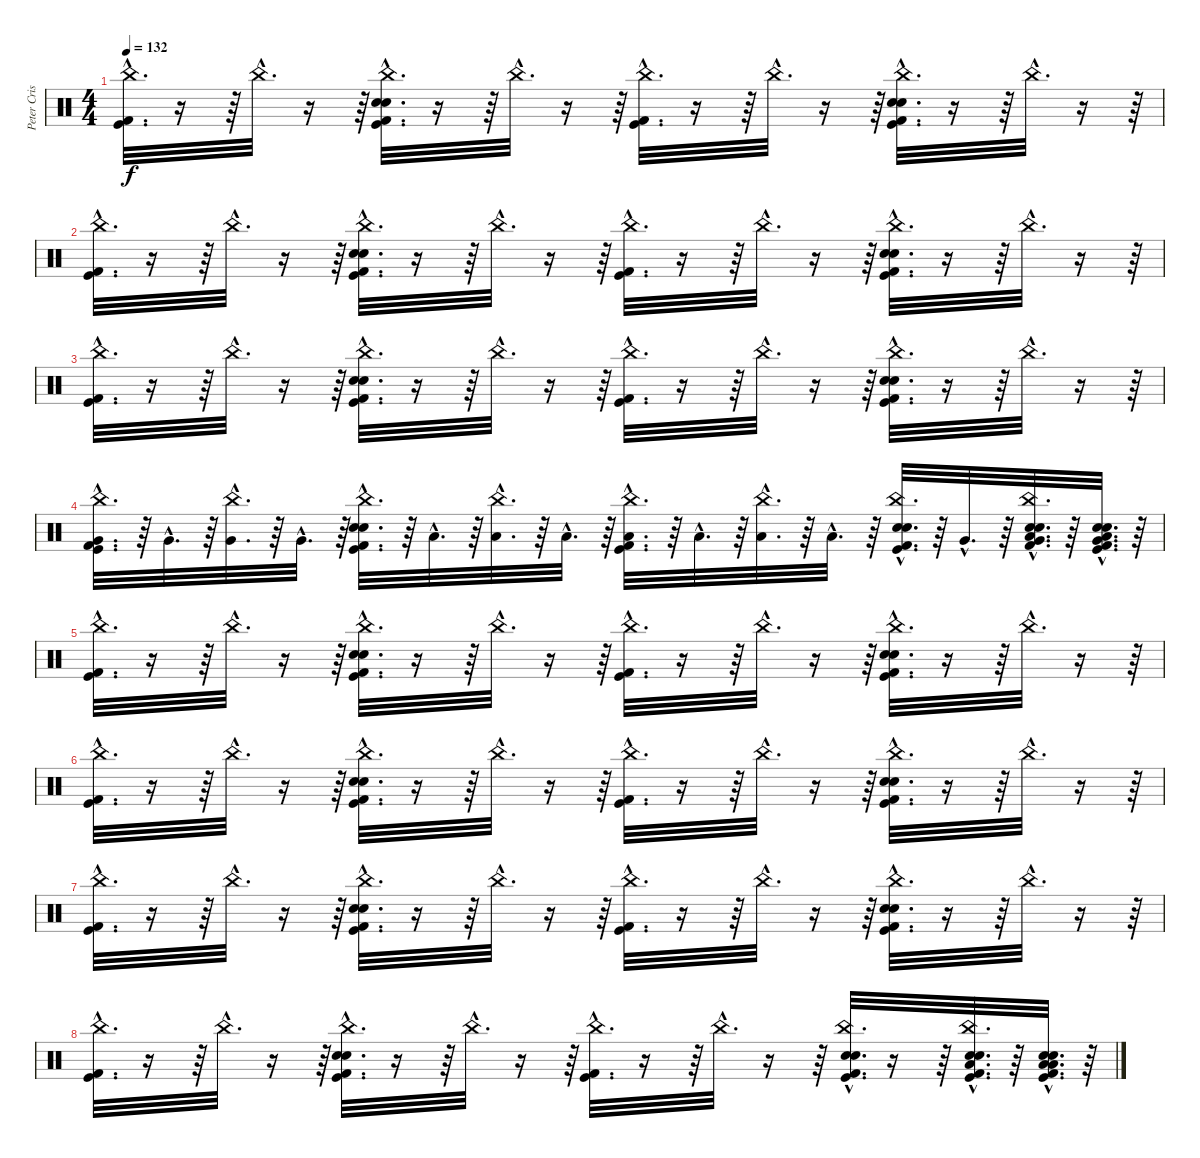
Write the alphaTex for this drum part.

\track ("Peter Criss" "Peter Cris") {instrument percussion}
\staff {score}
\articulation defaults
\ts (4 4)
\tempo 132
\clef neutral
\ks c
("Kick (hit) 2"{hac} "Kick (hit)"{hac} "China (hit)"{hac}).32{d dy f} r.16 r.64 "China (hit)"{hac}.32{d} r.16 r.64 ("Kick (hit) 2"{hac} "Kick (hit)"{hac} "China (hit)"{hac} "Electric Snare (hit)"{hac} "Snare (hit) 2"{hac}).32{d} r.16 r.64 "China (hit)"{hac}.32{d} r.16 r.64 ("Kick (hit) 2"{hac} "Kick (hit)"{hac} "China (hit)"{hac}).32{d} r.16 r.64 "China (hit)"{hac}.32{d} r.16 r.64 ("Kick (hit) 2"{hac} "Kick (hit)"{hac} "China (hit)"{hac} "Electric Snare (hit)"{hac} "Snare (hit) 2"{hac}).32{d} r.16 r.64 "China (hit)"{hac}.32{d} r.16 r.64 |
("Kick (hit) 2"{hac} "Kick (hit)"{hac} "China (hit)"{hac}).32{d} r.16 r.64 "China (hit)"{hac}.32{d} r.16 r.64 ("Kick (hit) 2"{hac} "Kick (hit)"{hac} "China (hit)"{hac} "Electric Snare (hit)"{hac} "Snare (hit) 2"{hac}).32{d} r.16 r.64 "China (hit)"{hac}.32{d} r.16 r.64 ("Kick (hit) 2"{hac} "Kick (hit)"{hac} "China (hit)"{hac}).32{d} r.16 r.64 "China (hit)"{hac}.32{d} r.16 r.64 ("Kick (hit) 2"{hac} "Kick (hit)"{hac} "China (hit)"{hac} "Electric Snare (hit)"{hac} "Snare (hit) 2"{hac}).32{d} r.16 r.64 "China (hit)"{hac}.32{d} r.16 r.64 |
("Kick (hit) 2"{hac} "Kick (hit)"{hac} "China (hit)"{hac}).32{d} r.16 r.64 "China (hit)"{hac}.32{d} r.16 r.64 ("Kick (hit) 2"{hac} "Kick (hit)"{hac} "China (hit)"{hac} "Electric Snare (hit)"{hac} "Snare (hit) 2"{hac}).32{d} r.16 r.64 "China (hit)"{hac}.32{d} r.16 r.64 ("Kick (hit) 2"{hac} "Kick (hit)"{hac} "China (hit)"{hac}).32{d} r.16 r.64 "China (hit)"{hac}.32{d} r.16 r.64 ("Kick (hit) 2"{hac} "Kick (hit)"{hac} "China (hit)"{hac} "Electric Snare (hit)"{hac} "Snare (hit) 2"{hac}).32{d} r.16 r.64 "China (hit)"{hac}.32{d} r.16 r.64 |
("Kick (hit) 2"{hac} "Kick (hit)"{hac} "China (hit)"{hac} "Very Low Tom (hit)"{hac}).32{d} r.64 "Very Low Tom (hit)"{hac}.32{d} r.64 ("China (hit)"{hac} "Very Low Tom (hit)"{hac}).32{d} r.64 "Very Low Tom (hit)"{hac}.32{d} r.64 ("Kick (hit) 2"{hac} "Kick (hit)"{hac} "China (hit)"{hac} "Electric Snare (hit)"{hac} "Snare (hit) 2"{hac}).32{d} r.64 "Low Tom (hit)"{hac}.32{d} r.64 ("China (hit)"{hac} "Low Tom (hit)"{hac}).32{d} r.64 "Low Tom (hit)"{hac}.32{d} r.64 ("Kick (hit) 2"{hac} "Kick (hit)"{hac} "China (hit)"{hac} "Low Floor Tom (hit)"{hac}).32{d} r.64 "Low Floor Tom (hit)"{hac}.32{d} r.64 ("China (hit)"{hac} "Low Floor Tom (hit)"{hac}).32{d} r.64 "Low Floor Tom (hit)"{hac}.32{d} r.64 ("Kick (hit) 2"{hac} "Kick (hit)"{hac} "China (hit)"{hac} "Electric Snare (hit)"{hac} "Snare (hit) 2"{hac}).32{d} r.64 "Very Low Tom (hit)"{hac}.32{d} r.64 ("China (hit)"{hac} "Very Low Tom (hit)"{hac} "Electric Snare (hit)"{hac} "Snare (hit) 2"{hac} "Kick (hit) 2"{hac} "Low Floor Tom (hit)"{hac}).32{d} r.64 ("Very Low Tom (hit)"{hac} "Electric Snare (hit)"{hac} "Snare (hit) 2"{hac} "Kick (hit) 2"{hac} "Kick (hit)"{hac} "Low Floor Tom (hit)"{hac}).32{d} r.64 |
("Kick (hit) 2"{hac} "Kick (hit)"{hac} "China (hit)"{hac}).32{d} r.16 r.64 "China (hit)"{hac}.32{d} r.16 r.64 ("Kick (hit) 2"{hac} "Kick (hit)"{hac} "China (hit)"{hac} "Electric Snare (hit)"{hac} "Snare (hit) 2"{hac}).32{d} r.16 r.64 "China (hit)"{hac}.32{d} r.16 r.64 ("Kick (hit) 2"{hac} "Kick (hit)"{hac} "China (hit)"{hac}).32{d} r.16 r.64 "China (hit)"{hac}.32{d} r.16 r.64 ("Kick (hit) 2"{hac} "Kick (hit)"{hac} "China (hit)"{hac} "Electric Snare (hit)"{hac} "Snare (hit) 2"{hac}).32{d} r.16 r.64 "China (hit)"{hac}.32{d} r.16 r.64 |
("Kick (hit) 2"{hac} "Kick (hit)"{hac} "China (hit)"{hac}).32{d} r.16 r.64 "China (hit)"{hac}.32{d} r.16 r.64 ("Kick (hit) 2"{hac} "Kick (hit)"{hac} "China (hit)"{hac} "Electric Snare (hit)"{hac} "Snare (hit) 2"{hac}).32{d} r.16 r.64 "China (hit)"{hac}.32{d} r.16 r.64 ("Kick (hit) 2"{hac} "Kick (hit)"{hac} "China (hit)"{hac}).32{d} r.16 r.64 "China (hit)"{hac}.32{d} r.16 r.64 ("Kick (hit) 2"{hac} "Kick (hit)"{hac} "China (hit)"{hac} "Electric Snare (hit)"{hac} "Snare (hit) 2"{hac}).32{d} r.16 r.64 "China (hit)"{hac}.32{d} r.16 r.64 |
("Kick (hit) 2"{hac} "Kick (hit)"{hac} "China (hit)"{hac}).32{d} r.16 r.64 "China (hit)"{hac}.32{d} r.16 r.64 ("Kick (hit) 2"{hac} "Kick (hit)"{hac} "China (hit)"{hac} "Electric Snare (hit)"{hac} "Snare (hit) 2"{hac}).32{d} r.16 r.64 "China (hit)"{hac}.32{d} r.16 r.64 ("Kick (hit) 2"{hac} "Kick (hit)"{hac} "China (hit)"{hac}).32{d} r.16 r.64 "China (hit)"{hac}.32{d} r.16 r.64 ("Kick (hit) 2"{hac} "Kick (hit)"{hac} "China (hit)"{hac} "Electric Snare (hit)"{hac} "Snare (hit) 2"{hac}).32{d} r.16 r.64 "China (hit)"{hac}.32{d} r.16 r.64 |
("Kick (hit) 2"{hac} "Kick (hit)"{hac} "China (hit)"{hac}).32{d} r.16 r.64 "China (hit)"{hac}.32{d} r.16 r.64 ("Kick (hit) 2"{hac} "Kick (hit)"{hac} "China (hit)"{hac} "Electric Snare (hit)"{hac} "Snare (hit) 2"{hac}).32{d} r.16 r.64 "China (hit)"{hac}.32{d} r.16 r.64 ("Kick (hit) 2"{hac} "Kick (hit)"{hac} "China (hit)"{hac}).32{d} r.16 r.64 "China (hit)"{hac}.32{d} r.16 r.64 ("Kick (hit) 2"{hac} "Kick (hit)"{hac} "China (hit)"{hac} "Electric Snare (hit)"{hac} "Snare (hit) 2"{hac}).32{d} r.16 r.64 ("China (hit)"{hac} "Electric Snare (hit)"{hac} "Snare (hit) 2"{hac} "Kick (hit) 2"{hac} "Kick (hit)"{hac} "Low Floor Tom (hit)"{hac}).32{d} r.64 ("Electric Snare (hit)"{hac} "Snare (hit) 2"{hac} "Kick (hit) 2"{hac} "Kick (hit)"{hac} "Low Tom (hit)"{hac} "Low Floor Tom (hit)"{hac}).32{d} r.64
